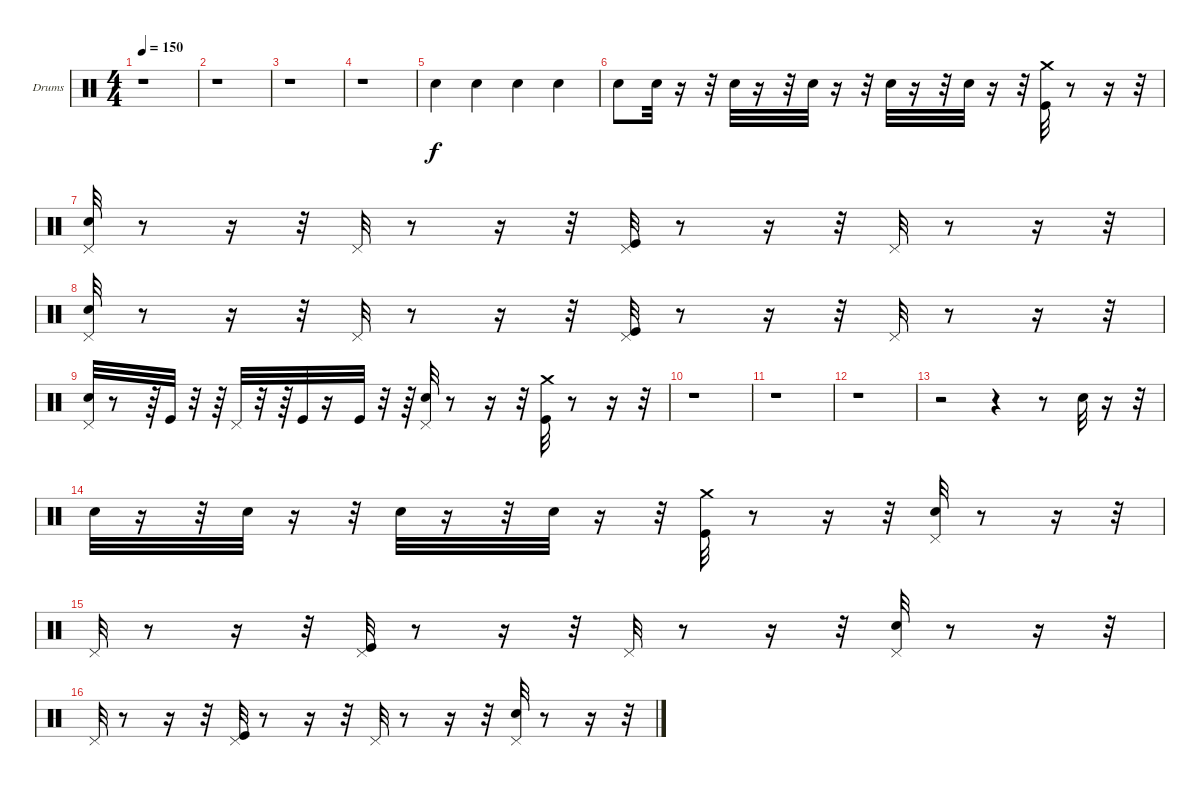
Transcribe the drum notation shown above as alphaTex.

\bracketExtendMode groupsimilarinstruments
\firstSystemTrackNameOrientation horizontal
\otherSystemsTrackNameOrientation horizontal
\track ("Drumkit" "Drums") {instrument percussion}
\staff {score}
\articulation defaults
\ts (4 4)
\tempo 150
\clef neutral
\ks c
r.1{dy f} |
r.1 |
r.1 |
r.1 |
"Snare (hit) 2".4 "Snare (hit) 2".4 "Snare (hit) 2".4 "Snare (hit) 2".4 |
"Snare (hit) 2".8 "Snare (hit) 2".32 r.16 r.32 "Snare (hit) 2".32 r.16 r.32 "Snare (hit) 2".32 r.16 r.32 "Snare (hit) 2".32 r.16 r.32 "Snare (hit) 2".32 r.16 r.32 ("Crash medium (hit)" "Kick (hit)").32 r.8 r.16 r.32 |
("Pedal Hi-Hat (hit)" "Snare (hit) 2").32 r.8 r.16 r.32 "Pedal Hi-Hat (hit)".32 r.8 r.16 r.32 ("Pedal Hi-Hat (hit)" "Kick (hit)").32 r.8 r.16 r.32 "Pedal Hi-Hat (hit)".32 r.8 r.16 r.32 |
("Pedal Hi-Hat (hit)" "Snare (hit) 2").32 r.8 r.16 r.32 "Pedal Hi-Hat (hit)".32 r.8 r.16 r.32 ("Pedal Hi-Hat (hit)" "Kick (hit)").32 r.8 r.16 r.32 "Pedal Hi-Hat (hit)".32 r.8 r.16 r.32 |
("Pedal Hi-Hat (hit)" "Snare (hit) 2").32 r.8 r.64 "Kick (hit)".32 r.32 r.64 "Pedal Hi-Hat (hit)".32 r.32 r.64 "Kick (hit)".32 r.16 "Kick (hit)".32 r.32 r.64 ("Pedal Hi-Hat (hit)" "Snare (hit) 2").32 r.8 r.16 r.32 ("Crash medium (hit)" "Kick (hit)").32 r.8 r.16 r.32 |
r.1 |
r.1 |
r.1 |
r.2 r.4 r.8 "Snare (hit) 2".32 r.16 r.32 |
"Snare (hit) 2".32 r.16 r.32 "Snare (hit) 2".32 r.16 r.32 "Snare (hit) 2".32 r.16 r.32 "Snare (hit) 2".32 r.16 r.32 ("Crash medium (hit)" "Kick (hit)").32 r.8 r.16 r.32 ("Pedal Hi-Hat (hit)" "Snare (hit) 2").32 r.8 r.16 r.32 |
"Pedal Hi-Hat (hit)".32 r.8 r.16 r.32 ("Pedal Hi-Hat (hit)" "Kick (hit)").32 r.8 r.16 r.32 "Pedal Hi-Hat (hit)".32 r.8 r.16 r.32 ("Pedal Hi-Hat (hit)" "Snare (hit) 2").32 r.8 r.16 r.32 |
"Pedal Hi-Hat (hit)".32 r.8 r.16 r.32 ("Pedal Hi-Hat (hit)" "Kick (hit)").32 r.8 r.16 r.32 "Pedal Hi-Hat (hit)".32 r.8 r.16 r.32 ("Pedal Hi-Hat (hit)" "Snare (hit) 2").32 r.8 r.16 r.32
